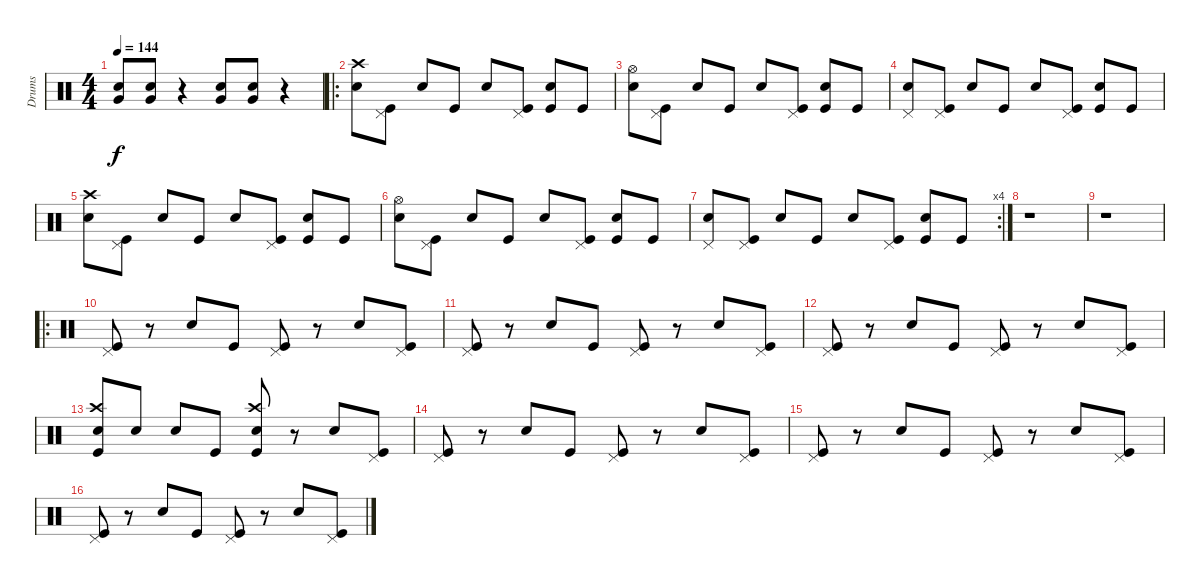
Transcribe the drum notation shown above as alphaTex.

\track ("Drums" "Drums") {instrument percussion}
\staff {score}
\articulation defaults
\ts (4 4)
\tempo 144
\clef neutral
\ks c
("Snare (hit) 2" "Very Low Tom (hit)").8{dy f} ("Snare (hit) 2" "Very Low Tom (hit)").8 r.4 ("Snare (hit) 2" "Very Low Tom (hit)").8 ("Snare (hit) 2" "Very Low Tom (hit)").8 r.4 |
\ro
("Crash high (hit)" "Snare (hit) 2").8 ("Pedal Hi-Hat (hit)" "Kick (hit)").8 "Snare (hit) 2".8 "Kick (hit)".8 "Snare (hit) 2".8 ("Pedal Hi-Hat (hit)" "Kick (hit)").8 ("Snare (hit) 2" "Kick (hit)").8 "Kick (hit)".8 |
("Hi-Hat (open)" "Snare (hit) 2").8 ("Pedal Hi-Hat (hit)" "Kick (hit)").8 "Snare (hit) 2".8 "Kick (hit)".8 "Snare (hit) 2".8 ("Pedal Hi-Hat (hit)" "Kick (hit)").8 ("Snare (hit) 2" "Kick (hit)").8 "Kick (hit)".8 |
("Pedal Hi-Hat (hit)" "Snare (hit) 2").8 ("Pedal Hi-Hat (hit)" "Kick (hit)").8 "Snare (hit) 2".8 "Kick (hit)".8 "Snare (hit) 2".8 ("Pedal Hi-Hat (hit)" "Kick (hit)").8 ("Snare (hit) 2" "Kick (hit)").8 "Kick (hit)".8 |
("Crash high (hit)" "Snare (hit) 2").8 ("Pedal Hi-Hat (hit)" "Kick (hit)").8 "Snare (hit) 2".8 "Kick (hit)".8 "Snare (hit) 2".8 ("Pedal Hi-Hat (hit)" "Kick (hit)").8 ("Snare (hit) 2" "Kick (hit)").8 "Kick (hit)".8 |
("Hi-Hat (open)" "Snare (hit) 2").8 ("Pedal Hi-Hat (hit)" "Kick (hit)").8 "Snare (hit) 2".8 "Kick (hit)".8 "Snare (hit) 2".8 ("Pedal Hi-Hat (hit)" "Kick (hit)").8 ("Snare (hit) 2" "Kick (hit)").8 "Kick (hit)".8 |
\rc 4
("Pedal Hi-Hat (hit)" "Snare (hit) 2").8 ("Pedal Hi-Hat (hit)" "Kick (hit)").8 "Snare (hit) 2".8 "Kick (hit)".8 "Snare (hit) 2".8 ("Pedal Hi-Hat (hit)" "Kick (hit)").8 ("Snare (hit) 2" "Kick (hit)").8 "Kick (hit)".8 |
r.1 |
r.1 |
\ro
("Pedal Hi-Hat (hit)" "Kick (hit)").8 r.8 "Snare (hit) 2".8 "Kick (hit)".8 ("Pedal Hi-Hat (hit)" "Kick (hit)").8 r.8 "Snare (hit) 2".8 ("Pedal Hi-Hat (hit)" "Kick (hit)").8 |
("Pedal Hi-Hat (hit)" "Kick (hit)").8 r.8 "Snare (hit) 2".8 "Kick (hit)".8 ("Pedal Hi-Hat (hit)" "Kick (hit)").8 r.8 "Snare (hit) 2".8 ("Pedal Hi-Hat (hit)" "Kick (hit)").8 |
("Pedal Hi-Hat (hit)" "Kick (hit)").8 r.8 "Snare (hit) 2".8 "Kick (hit)".8 ("Pedal Hi-Hat (hit)" "Kick (hit)").8 r.8 "Snare (hit) 2".8 ("Pedal Hi-Hat (hit)" "Kick (hit)").8 |
("Crash high (hit)" "Snare (hit) 2" "Kick (hit)").8 "Snare (hit) 2".8 "Snare (hit) 2".8 "Kick (hit)".8 ("Crash high (hit)" "Snare (hit) 2" "Kick (hit)").8 r.8 "Snare (hit) 2".8 ("Pedal Hi-Hat (hit)" "Kick (hit)").8 |
("Pedal Hi-Hat (hit)" "Kick (hit)").8 r.8 "Snare (hit) 2".8 "Kick (hit)".8 ("Pedal Hi-Hat (hit)" "Kick (hit)").8 r.8 "Snare (hit) 2".8 ("Pedal Hi-Hat (hit)" "Kick (hit)").8 |
("Pedal Hi-Hat (hit)" "Kick (hit)").8 r.8 "Snare (hit) 2".8 "Kick (hit)".8 ("Pedal Hi-Hat (hit)" "Kick (hit)").8 r.8 "Snare (hit) 2".8 ("Pedal Hi-Hat (hit)" "Kick (hit)").8 |
("Pedal Hi-Hat (hit)" "Kick (hit)").8 r.8 "Snare (hit) 2".8 "Kick (hit)".8 ("Pedal Hi-Hat (hit)" "Kick (hit)").8 r.8 "Snare (hit) 2".8 ("Pedal Hi-Hat (hit)" "Kick (hit)").8
